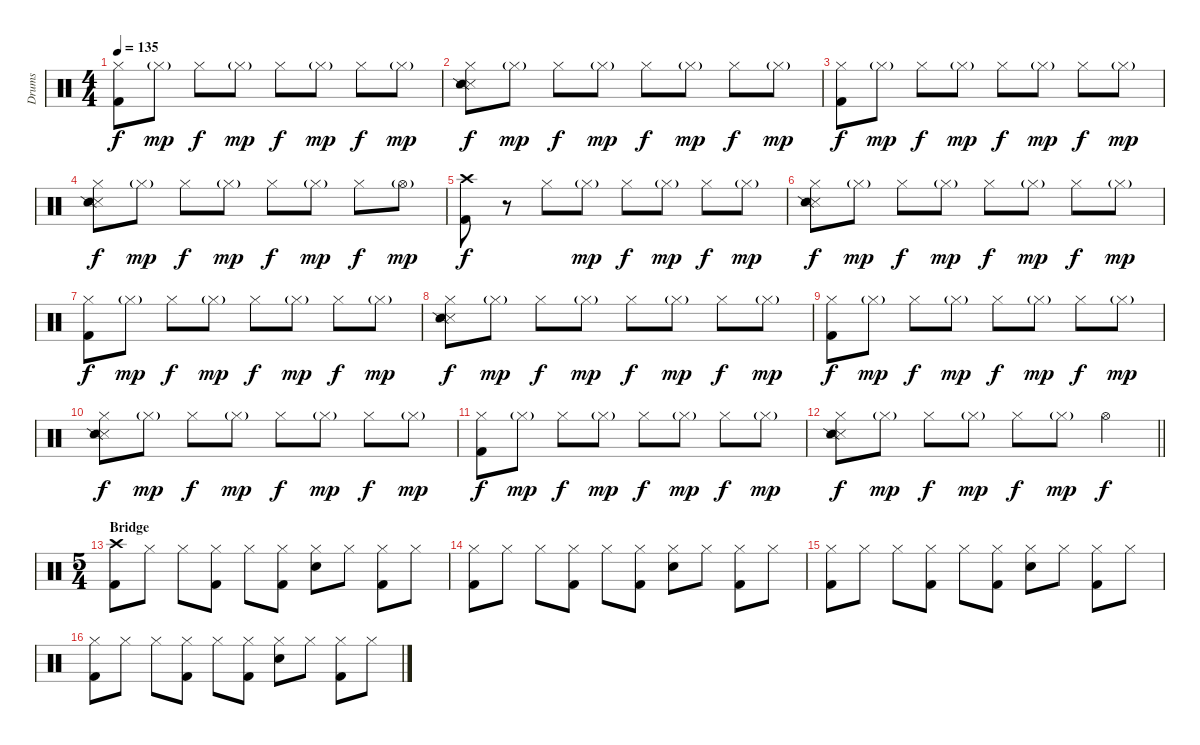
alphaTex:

\track ("Drums" "Drums") {instrument percussion}
\staff {score}
\articulation defaults
\ts (4 4)
\tempo 135
\clef neutral
\ks c
("Hi-Hat (closed)" "Kick (hit) 2").8{dy f} "Hi-Hat (closed)"{g}.8{dy mp} "Hi-Hat (closed)".8{dy f} "Hi-Hat (closed)"{g}.8{dy mp} "Hi-Hat (closed)".8{dy f} "Hi-Hat (closed)"{g}.8{dy mp} "Hi-Hat (closed)".8{dy f} "Hi-Hat (closed)"{g}.8{dy mp} |
("Hi-Hat (closed)" "Metronome (hit)" "Snare (side stick) 2").8{dy f} "Hi-Hat (closed)"{g}.8{dy mp} "Hi-Hat (closed)".8{dy f} "Hi-Hat (closed)"{g}.8{dy mp} "Hi-Hat (closed)".8{dy f} "Hi-Hat (closed)"{g}.8{dy mp} "Hi-Hat (closed)".8{dy f} "Hi-Hat (closed)"{g}.8{dy mp} |
("Hi-Hat (closed)" "Kick (hit) 2").8{dy f} "Hi-Hat (closed)"{g}.8{dy mp} "Hi-Hat (closed)".8{dy f} "Hi-Hat (closed)"{g}.8{dy mp} "Hi-Hat (closed)".8{dy f} "Hi-Hat (closed)"{g}.8{dy mp} "Hi-Hat (closed)".8{dy f} "Hi-Hat (closed)"{g}.8{dy mp} |
("Hi-Hat (closed)" "Metronome (hit)" "Snare (side stick) 2").8{dy f} "Hi-Hat (closed)"{g}.8{dy mp} "Hi-Hat (closed)".8{dy f} "Hi-Hat (closed)"{g}.8{dy mp} "Hi-Hat (closed)".8{dy f} "Hi-Hat (closed)"{g}.8{dy mp} "Hi-Hat (closed)".8{dy f} "Hi-Hat (open)"{g}.8{dy mp} |
("Crash high (hit)" "Kick (hit) 2").8{dy f} r.8 "Hi-Hat (closed)".8 "Hi-Hat (closed)"{g}.8{dy mp} "Hi-Hat (closed)".8{dy f} "Hi-Hat (closed)"{g}.8{dy mp} "Hi-Hat (closed)".8{dy f} "Hi-Hat (closed)"{g}.8{dy mp} |
("Hi-Hat (closed)" "Metronome (hit)" "Snare (side stick) 2").8{dy f} "Hi-Hat (closed)"{g}.8{dy mp} "Hi-Hat (closed)".8{dy f} "Hi-Hat (closed)"{g}.8{dy mp} "Hi-Hat (closed)".8{dy f} "Hi-Hat (closed)"{g}.8{dy mp} "Hi-Hat (closed)".8{dy f} "Hi-Hat (closed)"{g}.8{dy mp} |
("Hi-Hat (closed)" "Kick (hit) 2").8{dy f} "Hi-Hat (closed)"{g}.8{dy mp} "Hi-Hat (closed)".8{dy f} "Hi-Hat (closed)"{g}.8{dy mp} "Hi-Hat (closed)".8{dy f} "Hi-Hat (closed)"{g}.8{dy mp} "Hi-Hat (closed)".8{dy f} "Hi-Hat (closed)"{g}.8{dy mp} |
("Hi-Hat (closed)" "Metronome (hit)" "Snare (side stick) 2").8{dy f} "Hi-Hat (closed)"{g}.8{dy mp} "Hi-Hat (closed)".8{dy f} "Hi-Hat (closed)"{g}.8{dy mp} "Hi-Hat (closed)".8{dy f} "Hi-Hat (closed)"{g}.8{dy mp} "Hi-Hat (closed)".8{dy f} "Hi-Hat (closed)"{g}.8{dy mp} |
("Hi-Hat (closed)" "Kick (hit) 2").8{dy f} "Hi-Hat (closed)"{g}.8{dy mp} "Hi-Hat (closed)".8{dy f} "Hi-Hat (closed)"{g}.8{dy mp} "Hi-Hat (closed)".8{dy f} "Hi-Hat (closed)"{g}.8{dy mp} "Hi-Hat (closed)".8{dy f} "Hi-Hat (closed)"{g}.8{dy mp} |
("Hi-Hat (closed)" "Metronome (hit)" "Snare (side stick) 2").8{dy f} "Hi-Hat (closed)"{g}.8{dy mp} "Hi-Hat (closed)".8{dy f} "Hi-Hat (closed)"{g}.8{dy mp} "Hi-Hat (closed)".8{dy f} "Hi-Hat (closed)"{g}.8{dy mp} "Hi-Hat (closed)".8{dy f} "Hi-Hat (closed)"{g}.8{dy mp} |
("Hi-Hat (closed)" "Kick (hit) 2").8{dy f} "Hi-Hat (closed)"{g}.8{dy mp} "Hi-Hat (closed)".8{dy f} "Hi-Hat (closed)"{g}.8{dy mp} "Hi-Hat (closed)".8{dy f} "Hi-Hat (closed)"{g}.8{dy mp} "Hi-Hat (closed)".8{dy f} "Hi-Hat (closed)"{g}.8{dy mp} |
\barLineRight lightlight
("Hi-Hat (closed)" "Metronome (hit)" "Snare (side stick) 2").8{dy f} "Hi-Hat (closed)"{g}.8{dy mp} "Hi-Hat (closed)".8{dy f} "Hi-Hat (closed)"{g}.8{dy mp} "Hi-Hat (closed)".8{dy f} "Hi-Hat (closed)"{g}.8{dy mp} "Hi-Hat (open)".4{dy f} |
\ts (5 4)
\section ("" "Bridge")
("Crash high (hit)" "Kick (hit) 2").8 "Hi-Hat (closed)".8 "Hi-Hat (closed)".8 ("Hi-Hat (closed)" "Kick (hit) 2").8 "Hi-Hat (closed)".8 ("Hi-Hat (closed)" "Kick (hit) 2").8 ("Hi-Hat (closed)" "Snare (hit) 2").8 "Hi-Hat (closed)".8 ("Hi-Hat (closed)" "Kick (hit) 2").8 "Hi-Hat (closed)".8 |
("Hi-Hat (closed)" "Kick (hit) 2").8 "Hi-Hat (closed)".8 "Hi-Hat (closed)".8 ("Hi-Hat (closed)" "Kick (hit) 2").8 "Hi-Hat (closed)".8 ("Hi-Hat (closed)" "Kick (hit) 2").8 ("Hi-Hat (closed)" "Snare (hit) 2").8 "Hi-Hat (closed)".8 ("Hi-Hat (closed)" "Kick (hit) 2").8 "Hi-Hat (closed)".8 |
("Hi-Hat (closed)" "Kick (hit) 2").8 "Hi-Hat (closed)".8 "Hi-Hat (closed)".8 ("Hi-Hat (closed)" "Kick (hit) 2").8 "Hi-Hat (closed)".8 ("Hi-Hat (closed)" "Kick (hit) 2").8 ("Hi-Hat (closed)" "Snare (hit) 2").8 "Hi-Hat (closed)".8 ("Hi-Hat (closed)" "Kick (hit) 2").8 "Hi-Hat (closed)".8 |
("Hi-Hat (closed)" "Kick (hit) 2").8 "Hi-Hat (closed)".8 "Hi-Hat (closed)".8 ("Hi-Hat (closed)" "Kick (hit) 2").8 "Hi-Hat (closed)".8 ("Hi-Hat (closed)" "Kick (hit) 2").8 ("Hi-Hat (closed)" "Snare (hit) 2").8 "Hi-Hat (closed)".8 ("Hi-Hat (closed)" "Kick (hit) 2").8 "Hi-Hat (closed)".8
